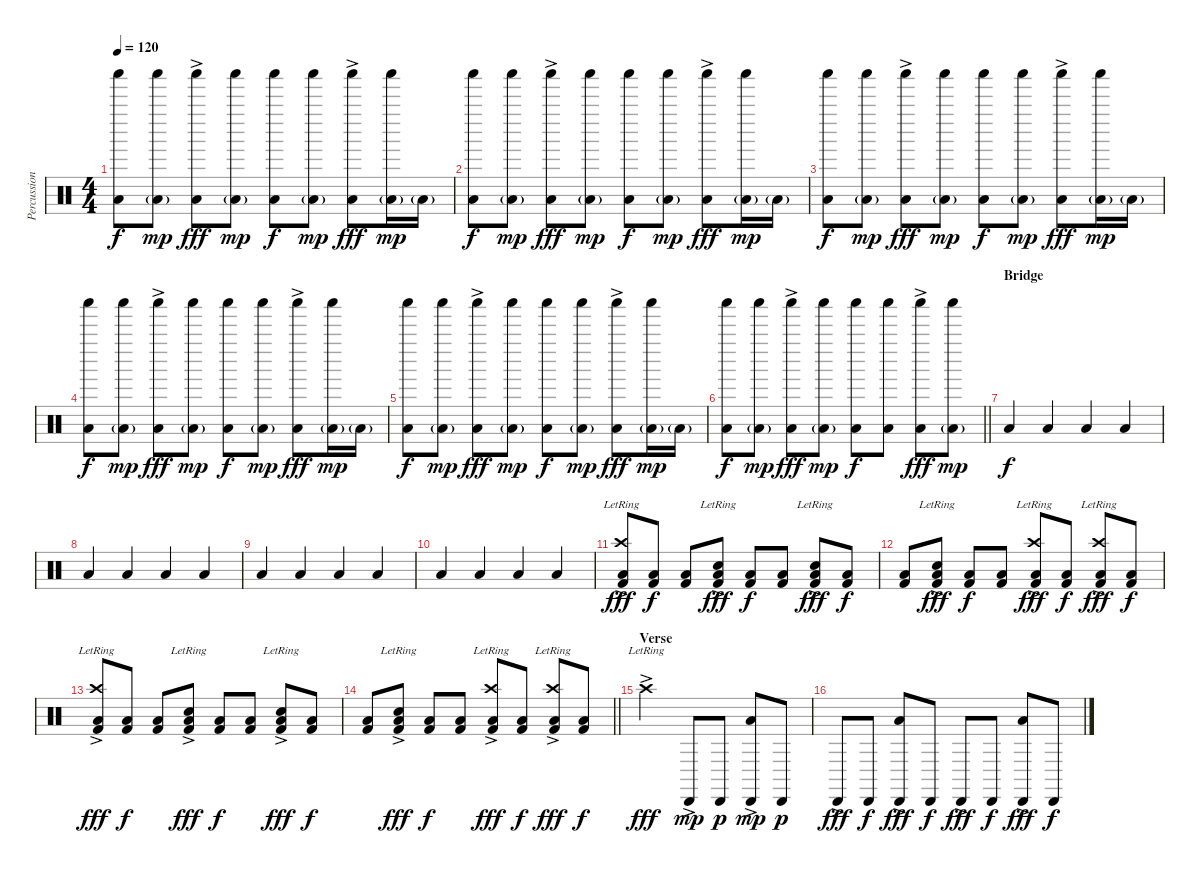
\track ("Percussion" "Percussion") {instrument percussion}
\staff {score}
\articulation defaults
\ts (4 4)
\tempo 120
\clef neutral
\ks c
("Shaker (hit)" "Low Tom (hit)").8{dy f} ("Shaker (hit)" "Low Tom (hit)"{g}).8{dy mp} ("Shaker (hit)" "Low Tom (hit)"{ac}).8{dy fff} ("Shaker (hit)" "Low Tom (hit)"{g}).8{dy mp} ("Shaker (hit)" "Low Tom (hit)").8{dy f} ("Shaker (hit)" "Low Tom (hit)"{g}).8{dy mp} ("Shaker (hit)" "Low Tom (hit)"{ac}).8{dy fff} ("Shaker (hit)" "Low Tom (hit)"{g}).16{dy mp} "Low Tom (hit)"{g}.16 |
("Shaker (hit)" "Low Tom (hit)").8{dy f} ("Shaker (hit)" "Low Tom (hit)"{g}).8{dy mp} ("Shaker (hit)" "Low Tom (hit)"{ac}).8{dy fff} ("Shaker (hit)" "Low Tom (hit)"{g}).8{dy mp} ("Shaker (hit)" "Low Tom (hit)").8{dy f} ("Shaker (hit)" "Low Tom (hit)"{g}).8{dy mp} ("Shaker (hit)" "Low Tom (hit)"{ac}).8{dy fff} ("Shaker (hit)" "Low Tom (hit)"{g}).16{dy mp} "Low Tom (hit)"{g}.16 |
("Shaker (hit)" "Low Tom (hit)").8{dy f} ("Shaker (hit)" "Low Tom (hit)"{g}).8{dy mp} ("Shaker (hit)" "Low Tom (hit)"{ac}).8{dy fff} ("Shaker (hit)" "Low Tom (hit)"{g}).8{dy mp} ("Shaker (hit)" "Low Tom (hit)").8{dy f} ("Shaker (hit)" "Low Tom (hit)"{g}).8{dy mp} ("Shaker (hit)" "Low Tom (hit)"{ac}).8{dy fff} ("Shaker (hit)" "Low Tom (hit)"{g}).16{dy mp} "Low Tom (hit)"{g}.16 |
("Shaker (hit)" "Low Tom (hit)").8{dy f} ("Shaker (hit)" "Low Tom (hit)"{g}).8{dy mp} ("Shaker (hit)" "Low Tom (hit)"{ac}).8{dy fff} ("Shaker (hit)" "Low Tom (hit)"{g}).8{dy mp} ("Shaker (hit)" "Low Tom (hit)").8{dy f} ("Shaker (hit)" "Low Tom (hit)"{g}).8{dy mp} ("Shaker (hit)" "Low Tom (hit)"{ac}).8{dy fff} ("Shaker (hit)" "Low Tom (hit)"{g}).16{dy mp} "Low Tom (hit)"{g}.16 |
("Shaker (hit)" "Low Tom (hit)").8{dy f} ("Shaker (hit)" "Low Tom (hit)"{g}).8{dy mp} ("Shaker (hit)" "Low Tom (hit)"{ac}).8{dy fff} ("Shaker (hit)" "Low Tom (hit)"{g}).8{dy mp} ("Shaker (hit)" "Low Tom (hit)").8{dy f} ("Shaker (hit)" "Low Tom (hit)"{g}).8{dy mp} ("Shaker (hit)" "Low Tom (hit)"{ac}).8{dy fff} ("Shaker (hit)" "Low Tom (hit)"{g}).16{dy mp} "Low Tom (hit)"{g}.16 |
\barLineRight lightlight
("Shaker (hit)" "Low Tom (hit)").8{dy f} ("Shaker (hit)" "Low Tom (hit)"{g}).8{dy mp} ("Shaker (hit)" "Low Tom (hit)"{ac}).8{dy fff} ("Shaker (hit)" "Low Tom (hit)"{g}).8{dy mp} ("Shaker (hit)" "Low Tom (hit)").8{dy f} ("Shaker (hit)" "Low Tom (hit)").8 ("Shaker (hit)" "Low Tom (hit)"{ac}).8{dy fff} ("Shaker (hit)" "Low Tom (hit)"{g}).8{dy mp} |
\section ("" "Bridge")
"Low Tom (hit)".4{dy f} "Low Tom (hit)".4 "Low Tom (hit)".4 "Low Tom (hit)".4 |
"Low Tom (hit)".4 "Low Tom (hit)".4 "Low Tom (hit)".4 "Low Tom (hit)".4 |
"Low Tom (hit)".4 "Low Tom (hit)".4 "Low Tom (hit)".4 "Low Tom (hit)".4 |
"Low Tom (hit)".4 "Low Tom (hit)".4 "Low Tom (hit)".4 "Low Tom (hit)".4 |
("Crash high (hit)"{ac lr} "Low Tom (hit)" "Kick (hit) 2").8{dy fff volume 13} ("Low Tom (hit)" "Kick (hit) 2").8{dy f} ("Low Tom (hit)" "Kick (hit) 2").8 ("Snare (hit) 2"{ac lr} "Low Tom (hit)" "Kick (hit) 2").8{dy fff} ("Low Tom (hit)" "Kick (hit) 2").8{dy f} ("Low Tom (hit)" "Kick (hit) 2").8 ("Snare (hit) 2"{ac lr} "Low Tom (hit)" "Kick (hit) 2").8{dy fff} ("Low Tom (hit)" "Kick (hit) 2").8{dy f} |
("Low Tom (hit)" "Kick (hit) 2").8 ("Snare (hit) 2"{ac lr} "Low Tom (hit)" "Kick (hit) 2").8{dy fff} ("Low Tom (hit)" "Kick (hit) 2").8{dy f} ("Low Tom (hit)" "Kick (hit) 2").8 ("Crash high (hit)"{ac lr} "Low Tom (hit)" "Kick (hit) 2").8{dy fff} ("Low Tom (hit)" "Kick (hit) 2").8{dy f} ("Crash high (hit)"{ac lr} "Low Tom (hit)" "Kick (hit) 2").8{dy fff} ("Low Tom (hit)" "Kick (hit) 2").8{dy f} |
("Crash high (hit)"{ac lr} "Low Tom (hit)" "Kick (hit) 2").8{dy fff} ("Low Tom (hit)" "Kick (hit) 2").8{dy f} ("Low Tom (hit)" "Kick (hit) 2").8 ("Snare (hit) 2"{ac lr} "Low Tom (hit)" "Kick (hit) 2").8{dy fff} ("Low Tom (hit)" "Kick (hit) 2").8{dy f} ("Low Tom (hit)" "Kick (hit) 2").8 ("Snare (hit) 2"{ac lr} "Low Tom (hit)" "Kick (hit) 2").8{dy fff} ("Low Tom (hit)" "Kick (hit) 2").8{dy f} |
\barLineRight lightlight
("Low Tom (hit)" "Kick (hit) 2").8 ("Snare (hit) 2"{ac lr} "Low Tom (hit)" "Kick (hit) 2").8{dy fff} ("Low Tom (hit)" "Kick (hit) 2").8{dy f} ("Low Tom (hit)" "Kick (hit) 2").8 ("Crash high (hit)"{ac lr} "Low Tom (hit)" "Kick (hit) 2").8{dy fff} ("Low Tom (hit)" "Kick (hit) 2").8{dy f} ("Crash high (hit)"{ac lr} "Low Tom (hit)" "Kick (hit) 2").8{dy fff} ("Low Tom (hit)" "Kick (hit) 2").8{dy f} |
\section ("" "Verse")
"Crash high (hit)"{ac lr}.2{dy fff} "Cabasa (hit)"{ac}.8{dy mp} "Cabasa (hit)".8{dy p} ("Cabasa (hit)"{ac} "Low Tom (hit)").8{dy mp} "Cabasa (hit)".8{dy p} |
"Cabasa (hit)"{ac}.8{dy fff volume 10} "Cabasa (hit)".8{dy f} ("Cabasa (hit)"{ac} "Low Tom (hit)").8{dy fff} "Cabasa (hit)".8{dy f} "Cabasa (hit)"{ac}.8{dy fff} "Cabasa (hit)".8{dy f} ("Cabasa (hit)"{ac} "Low Tom (hit)").8{dy fff} "Cabasa (hit)".8{dy f}
